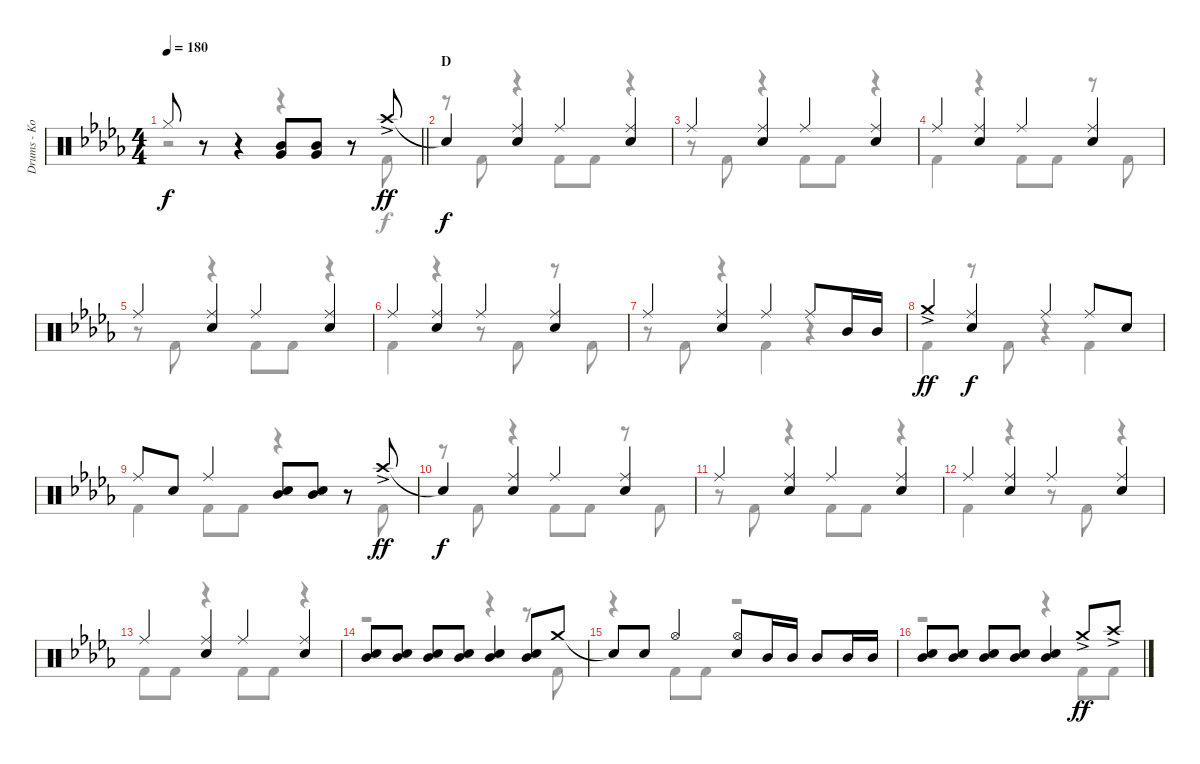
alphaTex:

\track ("Drums - Koji Hasegawa" "Drums - Ko") {instrument percussion}
\staff {score}
\articulation defaults
\voice
\ts (4 4)
\tempo 180
\clef neutral
\barLineRight lightlight
\ks db "Hi-Hat (closed)".8{dy f}
r.8 r.4 ("Mid Tom (hit)" "Very Low Tom (hit)").8 ("Mid Tom (hit)" "Very Low Tom (hit)").8 r.8 "Crash high (hit)"{ac}.8{dy ff} |
\section ("" "D")
"Snare (hit)"{t}.4{dy f} ("Ride (middle)" "Snare (hit) 2").4 "Ride (middle)".4 ("Ride (middle)" "Snare (hit) 2").4 |
"Ride (middle)".4 ("Ride (middle)" "Snare (hit) 2").4 "Ride (middle)".4 ("Ride (middle)" "Snare (hit) 2").4 |
"Ride (middle)".4 ("Ride (middle)" "Snare (hit) 2").4 "Ride (middle)".4 ("Ride (middle)" "Snare (hit) 2").4 |
"Ride (middle)".4 ("Ride (middle)" "Snare (hit) 2").4 "Ride (middle)".4 ("Ride (middle)" "Snare (hit) 2").4 |
"Ride (middle)".4 ("Ride (middle)" "Snare (hit) 2").4 "Ride (middle)".4 ("Ride (middle)" "Snare (hit) 2").4 |
"Ride (middle)".4 ("Ride (middle)" "Snare (hit) 2").4 "Ride (middle)".4 "Ride (middle)".8 "Mid Tom (hit)".16 "Mid Tom (hit)".16 |
"Crash medium (hit)"{ac}.4{dy ff} ("Ride (middle)" "Snare (hit) 2").4{dy f} "Ride (middle)".4 "Ride (middle)".8 "Snare (hit) 2".8 |
"Ride (middle)".8 "Snare (hit) 2".8 "Ride (middle)".4 ("Mid Tom (hit)" "Snare (hit) 2").8 ("Mid Tom (hit)" "Snare (hit) 2").8 r.8 "Crash high (hit)"{ac}.8{dy ff} |
"Snare (hit)"{t}.4{dy f} ("Ride (middle)" "Snare (hit) 2").4 "Ride (middle)".4 ("Ride (middle)" "Snare (hit) 2").4 |
"Ride (middle)".4 ("Ride (middle)" "Snare (hit) 2").4 "Ride (middle)".4 ("Ride (middle)" "Snare (hit) 2").4 |
"Ride (middle)".4 ("Ride (middle)" "Snare (hit) 2").4 "Ride (middle)".4 ("Ride (middle)" "Snare (hit) 2").4 |
"Ride (middle)".4 ("Ride (middle)" "Snare (hit) 2").4 "Ride (middle)".4 ("Ride (middle)" "Snare (hit) 2").4 |
("Mid Tom (hit)" "Snare (hit) 2").8 ("Mid Tom (hit)" "Snare (hit) 2").8 ("Mid Tom (hit)" "Snare (hit) 2").8 ("Mid Tom (hit)" "Snare (hit) 2").8 ("Mid Tom (hit)" "Snare (hit) 2").4 ("Mid Tom (hit)" "Snare (hit) 2").8 "Crash medium (hit)".8 |
"Snare (hit)"{t}.8 "Snare (hit) 2".8 "Hi-Hat (open)".4 ("Hi-Hat (open)" "Snare (hit) 2").8 "Mid Tom (hit)".16 "Mid Tom (hit)".16 "Mid Tom (hit)".8 "Mid Tom (hit)".16 "Mid Tom (hit)".16 |
("Mid Tom (hit)" "Snare (hit) 2").8 ("Mid Tom (hit)" "Snare (hit) 2").8 ("Mid Tom (hit)" "Snare (hit) 2").8 ("Mid Tom (hit)" "Snare (hit) 2").8 ("Mid Tom (hit)" "Snare (hit) 2").4 "Crash medium (hit)"{ac}.8{dy ff} "Crash high (hit)"{ac}.8
\voice
\clef neutral
\ottava regular
\simile none
\barLineRight lightlight
\ks db
r.2{dy f} r.4 r.8 "Kick (hit) 2".8 |
r.8 "Kick (hit) 2".8 r.4 "Kick (hit) 2".8 "Kick (hit) 2".8 r.4 |
r.8 "Kick (hit) 2".8 r.4 "Kick (hit) 2".8 "Kick (hit) 2".8 r.4 |
"Kick (hit) 2".4 r.4 "Kick (hit) 2".8 "Kick (hit) 2".8 r.8 "Kick (hit) 2".8 |
r.8 "Kick (hit) 2".8 r.4 "Kick (hit) 2".8 "Kick (hit) 2".8 r.4 |
"Kick (hit) 2".4 r.4 r.8 "Kick (hit) 2".8 r.8 "Kick (hit) 2".8 |
r.8 "Kick (hit) 2".8 r.4 "Kick (hit) 2".4 r.4 |
"Kick (hit) 2".4 r.8 "Kick (hit) 2".8 r.4 "Kick (hit) 2".4 |
"Kick (hit) 2".4 "Kick (hit) 2".8 "Kick (hit) 2".8 r.4 r.8 "Kick (hit) 2".8 |
r.8 "Kick (hit) 2".8 r.4 "Kick (hit) 2".8 "Kick (hit) 2".8 r.8 "Kick (hit) 2".8 |
r.8 "Kick (hit) 2".8 r.4 "Kick (hit) 2".8 "Kick (hit) 2".8 r.4 |
"Kick (hit) 2".4 r.4 r.8 "Kick (hit) 2".8 r.4 |
"Kick (hit) 2".8 "Kick (hit) 2".8 r.4 "Kick (hit) 2".8 "Kick (hit) 2".8 r.4 |
r.2 r.4 r.8 "Kick (hit) 2".8 |
r.4 "Kick (hit) 2".8 "Kick (hit) 2".8 r.2 |
r.2 r.4 "Kick (hit) 2".8 "Kick (hit) 2".8
